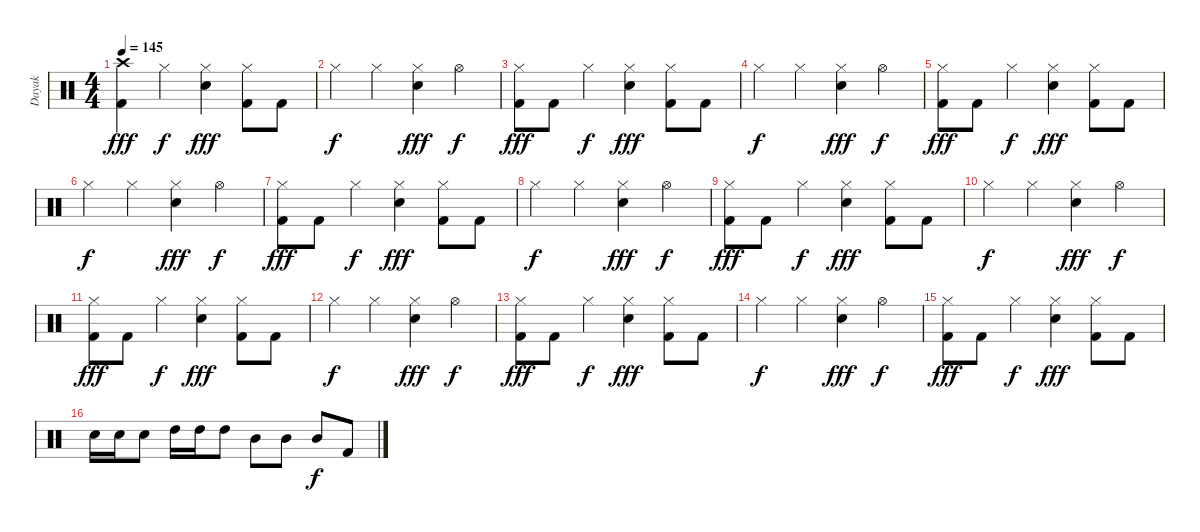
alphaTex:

\track ("Dayak" "Dayak") {instrument percussion}
\staff {score}
\articulation defaults
\ts (4 4)
\tempo 145
\clef neutral
\ks c
("Crash high (hit)" "Kick (hit) 2").4{dy fff} "Hi-Hat (closed)".4{dy f} ("Hi-Hat (closed)" "Snare (hit) 2").4{dy fff} ("Hi-Hat (closed)" "Kick (hit) 2").8 "Kick (hit) 2".8 |
"Hi-Hat (closed)".4{dy f} "Hi-Hat (closed)".4 ("Hi-Hat (closed)" "Snare (hit) 2").4{dy fff} "Hi-Hat (open)".4{dy f} |
("Hi-Hat (closed)" "Kick (hit) 2").8{dy fff} "Kick (hit) 2".8 "Hi-Hat (closed)".4{dy f} ("Hi-Hat (closed)" "Snare (hit) 2").4{dy fff} ("Hi-Hat (closed)" "Kick (hit) 2").8 "Kick (hit) 2".8 |
"Hi-Hat (closed)".4{dy f} "Hi-Hat (closed)".4 ("Hi-Hat (closed)" "Snare (hit) 2").4{dy fff} "Hi-Hat (open)".4{dy f} |
("Hi-Hat (closed)" "Kick (hit) 2").8{dy fff} "Kick (hit) 2".8 "Hi-Hat (closed)".4{dy f} ("Hi-Hat (closed)" "Snare (hit) 2").4{dy fff} ("Hi-Hat (closed)" "Kick (hit) 2").8 "Kick (hit) 2".8 |
"Hi-Hat (closed)".4{dy f} "Hi-Hat (closed)".4 ("Hi-Hat (closed)" "Snare (hit) 2").4{dy fff} "Hi-Hat (open)".4{dy f} |
("Hi-Hat (closed)" "Kick (hit) 2").8{dy fff} "Kick (hit) 2".8 "Hi-Hat (closed)".4{dy f} ("Hi-Hat (closed)" "Snare (hit) 2").4{dy fff} ("Hi-Hat (closed)" "Kick (hit) 2").8 "Kick (hit) 2".8 |
"Hi-Hat (closed)".4{dy f} "Hi-Hat (closed)".4 ("Hi-Hat (closed)" "Snare (hit) 2").4{dy fff} "Hi-Hat (open)".4{dy f} |
("Hi-Hat (closed)" "Kick (hit) 2").8{dy fff} "Kick (hit) 2".8 "Hi-Hat (closed)".4{dy f} ("Hi-Hat (closed)" "Snare (hit) 2").4{dy fff} ("Hi-Hat (closed)" "Kick (hit) 2").8 "Kick (hit) 2".8 |
"Hi-Hat (closed)".4{dy f} "Hi-Hat (closed)".4 ("Hi-Hat (closed)" "Snare (hit) 2").4{dy fff} "Hi-Hat (open)".4{dy f} |
("Hi-Hat (closed)" "Kick (hit) 2").8{dy fff} "Kick (hit) 2".8 "Hi-Hat (closed)".4{dy f} ("Hi-Hat (closed)" "Snare (hit) 2").4{dy fff} ("Hi-Hat (closed)" "Kick (hit) 2").8 "Kick (hit) 2".8 |
"Hi-Hat (closed)".4{dy f} "Hi-Hat (closed)".4 ("Hi-Hat (closed)" "Snare (hit) 2").4{dy fff} "Hi-Hat (open)".4{dy f} |
("Hi-Hat (closed)" "Kick (hit) 2").8{dy fff} "Kick (hit) 2".8 "Hi-Hat (closed)".4{dy f} ("Hi-Hat (closed)" "Snare (hit) 2").4{dy fff} ("Hi-Hat (closed)" "Kick (hit) 2").8 "Kick (hit) 2".8 |
"Hi-Hat (closed)".4{dy f} "Hi-Hat (closed)".4 ("Hi-Hat (closed)" "Snare (hit) 2").4{dy fff} "Hi-Hat (open)".4{dy f} |
("Hi-Hat (closed)" "Kick (hit) 2").8{dy fff} "Kick (hit) 2".8 "Hi-Hat (closed)".4{dy f} ("Hi-Hat (closed)" "Snare (hit) 2").4{dy fff} ("Hi-Hat (closed)" "Kick (hit) 2").8 "Kick (hit) 2".8 |
"Snare (hit) 2".16 "Snare (hit) 2".16 "Snare (hit) 2".8 "High Tom (hit)".16 "High Tom (hit)".16 "High Tom (hit)".8 "Mid Tom (hit)".8 "Mid Tom (hit)".8 "Mid Tom (hit)".8{dy f} "Kick (hit) 2".8
